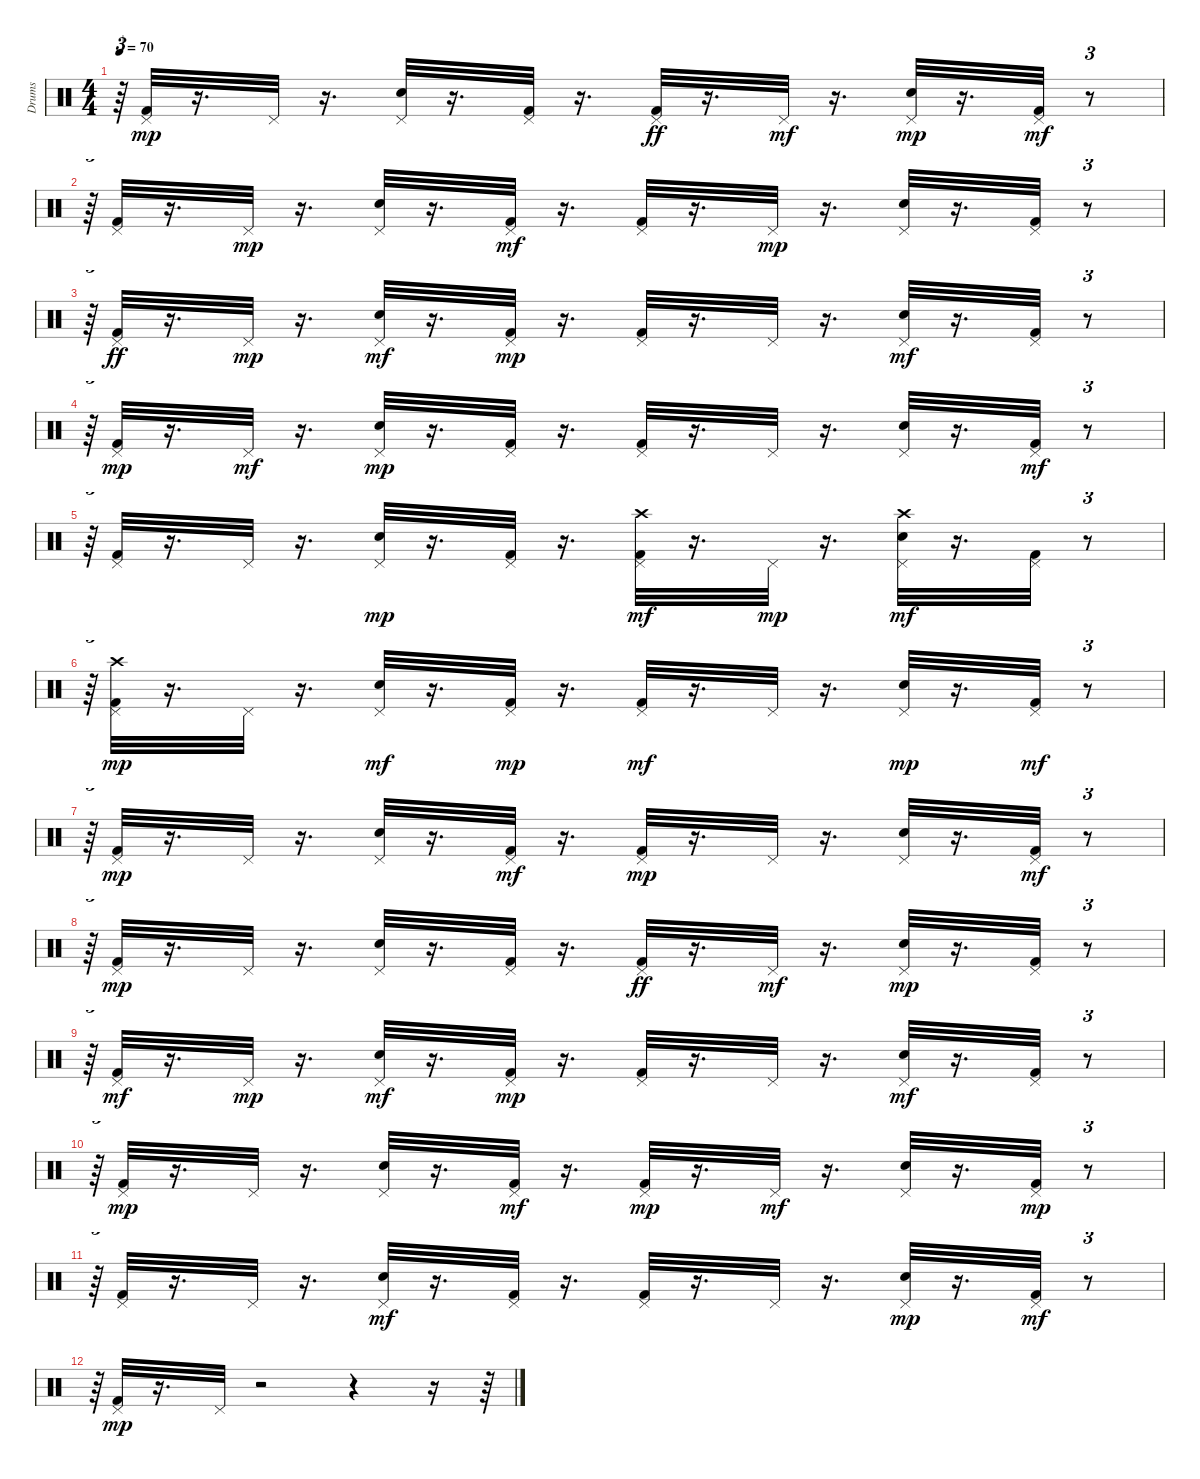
\track ("Drums" "Drums") {instrument percussion}
\staff {score}
\articulation defaults
\ts (4 4)
\tempo 70
\clef neutral
\ks c
r.64{tu (3 2) dy mp} ("Pedal Hi-Hat (hit)" "Kick (hit) 2").32 r.16{d} "Pedal Hi-Hat (hit)".32 r.16{d} ("Pedal Hi-Hat (hit)" "Snare (hit) 2").32 r.16{d} ("Kick (hit) 2" "Pedal Hi-Hat (hit)").32 r.16{d} ("Pedal Hi-Hat (hit)" "Kick (hit) 2").32{dy ff} r.16{d} "Pedal Hi-Hat (hit)".32{dy mf} r.16{d} ("Snare (hit) 2" "Pedal Hi-Hat (hit)").32{dy mp} r.16{d} ("Pedal Hi-Hat (hit)" "Kick (hit) 2").32{dy mf} r.8{tu (3 2)} |
r.64{tu (3 2)} ("Kick (hit) 2" "Pedal Hi-Hat (hit)").32 r.16{d} "Pedal Hi-Hat (hit)".32{dy mp} r.16{d} ("Snare (hit) 2" "Pedal Hi-Hat (hit)").32 r.16{d} ("Pedal Hi-Hat (hit)" "Kick (hit) 2").32{dy mf} r.16{d} ("Kick (hit) 2" "Pedal Hi-Hat (hit)").32 r.16{d} "Pedal Hi-Hat (hit)".32{dy mp} r.16{d} ("Pedal Hi-Hat (hit)" "Snare (hit) 2").32 r.16{d} ("Pedal Hi-Hat (hit)" "Kick (hit) 2").32 r.8{tu (3 2)} |
r.64{tu (3 2)} ("Pedal Hi-Hat (hit)" "Kick (hit) 2").32{dy ff} r.16{d} "Pedal Hi-Hat (hit)".32{dy mp} r.16{d} ("Snare (hit) 2" "Pedal Hi-Hat (hit)").32{dy mf} r.16{d} ("Kick (hit) 2" "Pedal Hi-Hat (hit)").32{dy mp} r.16{d} ("Kick (hit) 2" "Pedal Hi-Hat (hit)").32 r.16{d} "Pedal Hi-Hat (hit)".32 r.16{d} ("Snare (hit) 2" "Pedal Hi-Hat (hit)").32{dy mf} r.16{d} ("Pedal Hi-Hat (hit)" "Kick (hit) 2").32 r.8{tu (3 2)} |
r.64{tu (3 2)} ("Pedal Hi-Hat (hit)" "Kick (hit) 2").32{dy mp} r.16{d} "Pedal Hi-Hat (hit)".32{dy mf} r.16{d} ("Snare (hit) 2" "Pedal Hi-Hat (hit)").32{dy mp} r.16{d} ("Kick (hit) 2" "Pedal Hi-Hat (hit)").32 r.16{d} ("Kick (hit) 2" "Pedal Hi-Hat (hit)").32 r.16{d} "Pedal Hi-Hat (hit)".32 r.16{d} ("Snare (hit) 2" "Pedal Hi-Hat (hit)").32 r.16{d} ("Kick (hit) 2" "Pedal Hi-Hat (hit)").32{dy mf} r.8{tu (3 2)} |
r.64{tu (3 2)} ("Pedal Hi-Hat (hit)" "Kick (hit) 2").32 r.16{d} "Pedal Hi-Hat (hit)".32 r.16{d} ("Pedal Hi-Hat (hit)" "Snare (hit) 2").32{dy mp} r.16{d} ("Pedal Hi-Hat (hit)" "Kick (hit) 2").32 r.16{d} ("Pedal Hi-Hat (hit)" "Crash high (hit)" "Kick (hit) 2").32{dy mf} r.16{d} "Pedal Hi-Hat (hit)".32{dy mp} r.16{d} ("Crash high (hit)" "Snare (hit) 2" "Pedal Hi-Hat (hit)").32{dy mf} r.16{d} ("Kick (hit) 2" "Pedal Hi-Hat (hit)").32 r.8{tu (3 2)} |
r.64{tu (3 2)} ("Kick (hit) 2" "Crash high (hit)" "Pedal Hi-Hat (hit)").32{dy mp volume 8} r.16{d} "Pedal Hi-Hat (hit)".32{volume 8} r.16{d} ("Pedal Hi-Hat (hit)" "Snare (hit) 2").32{dy mf volume 8} r.16{d} ("Kick (hit) 2" "Pedal Hi-Hat (hit)").32{dy mp volume 8} r.16{d} ("Pedal Hi-Hat (hit)" "Kick (hit) 2").32{dy mf volume 8} r.16{d} "Pedal Hi-Hat (hit)".32{volume 8} r.16{d} ("Snare (hit) 2" "Pedal Hi-Hat (hit)").32{dy mp volume 7} r.16{d} ("Pedal Hi-Hat (hit)" "Kick (hit) 2").32{dy mf volume 7} r.8{tu (3 2)} |
r.64{tu (3 2)} ("Pedal Hi-Hat (hit)" "Kick (hit) 2").32{dy mp volume 7} r.16{d} "Pedal Hi-Hat (hit)".32{volume 7} r.16{d} ("Snare (hit) 2" "Pedal Hi-Hat (hit)").32{volume 7} r.16{d} ("Kick (hit) 2" "Pedal Hi-Hat (hit)").32{dy mf volume 7} r.16{d} ("Pedal Hi-Hat (hit)" "Kick (hit) 2").32{dy mp volume 6} r.16{d} "Pedal Hi-Hat (hit)".32{volume 6} r.16{d} ("Pedal Hi-Hat (hit)" "Snare (hit) 2").32{volume 6} r.16{d} ("Kick (hit) 2" "Pedal Hi-Hat (hit)").32{dy mf volume 6} r.8{tu (3 2)} |
r.64{tu (3 2)} ("Pedal Hi-Hat (hit)" "Kick (hit) 2").32{dy mp volume 6} r.16{d} "Pedal Hi-Hat (hit)".32{volume 6} r.16{d} ("Snare (hit) 2" "Pedal Hi-Hat (hit)").32{volume 6} r.16{d} ("Kick (hit) 2" "Pedal Hi-Hat (hit)").32{volume 5} r.16{d} ("Pedal Hi-Hat (hit)" "Kick (hit) 2").32{dy ff volume 5} r.16{d} "Pedal Hi-Hat (hit)".32{dy mf volume 5} r.16{d} ("Snare (hit) 2" "Pedal Hi-Hat (hit)").32{dy mp volume 5} r.16{d} ("Kick (hit) 2" "Pedal Hi-Hat (hit)").32{volume 5} r.8{tu (3 2)} |
r.64{tu (3 2)} ("Pedal Hi-Hat (hit)" "Kick (hit) 2").32{dy mf volume 5} r.16{d} "Pedal Hi-Hat (hit)".32{dy mp volume 4} r.16{d} ("Snare (hit) 2" "Pedal Hi-Hat (hit)").32{dy mf volume 4} r.16{d} ("Kick (hit) 2" "Pedal Hi-Hat (hit)").32{dy mp volume 4} r.16{d} ("Kick (hit) 2" "Pedal Hi-Hat (hit)").32{volume 4} r.16{d} "Pedal Hi-Hat (hit)".32{volume 4} r.16{d} ("Pedal Hi-Hat (hit)" "Snare (hit) 2").32{dy mf volume 4} r.16{d} ("Pedal Hi-Hat (hit)" "Kick (hit) 2").32{volume 4} r.8{tu (3 2)} |
r.64{tu (3 2)} ("Kick (hit) 2" "Pedal Hi-Hat (hit)").32{dy mp volume 4} r.16{d} "Pedal Hi-Hat (hit)".32{volume 3} r.16{d} ("Pedal Hi-Hat (hit)" "Snare (hit) 2").32{volume 3} r.16{d} ("Kick (hit) 2" "Pedal Hi-Hat (hit)").32{dy mf volume 3} r.16{d} ("Pedal Hi-Hat (hit)" "Kick (hit) 2").32{dy mp volume 3} r.16{d} "Pedal Hi-Hat (hit)".32{dy mf volume 3} r.16{d} ("Snare (hit) 2" "Pedal Hi-Hat (hit)").32{volume 3} r.16{d} ("Pedal Hi-Hat (hit)" "Kick (hit) 2").32{dy mp volume 2} r.8{tu (3 2)} |
r.64{tu (3 2)} ("Pedal Hi-Hat (hit)" "Kick (hit) 2").32{volume 2} r.16{d} "Pedal Hi-Hat (hit)".32{volume 2} r.16{d} ("Snare (hit) 2" "Pedal Hi-Hat (hit)").32{dy mf volume 2} r.16{d} ("Pedal Hi-Hat (hit)" "Kick (hit) 2").32{volume 2} r.16{d} ("Kick (hit) 2" "Pedal Hi-Hat (hit)").32{volume 2} r.16{d} "Pedal Hi-Hat (hit)".32{volume 2} r.16{d} ("Pedal Hi-Hat (hit)" "Snare (hit) 2").32{dy mp volume 2} r.16{d} ("Pedal Hi-Hat (hit)" "Kick (hit) 2").32{dy mf volume 1} r.8{tu (3 2)} |
r.64{tu (3 2)} ("Pedal Hi-Hat (hit)" "Kick (hit) 2").32{dy mp volume 1} r.16{d} "Pedal Hi-Hat (hit)".32{volume 1} r.2 r.4 r.16 r.64
